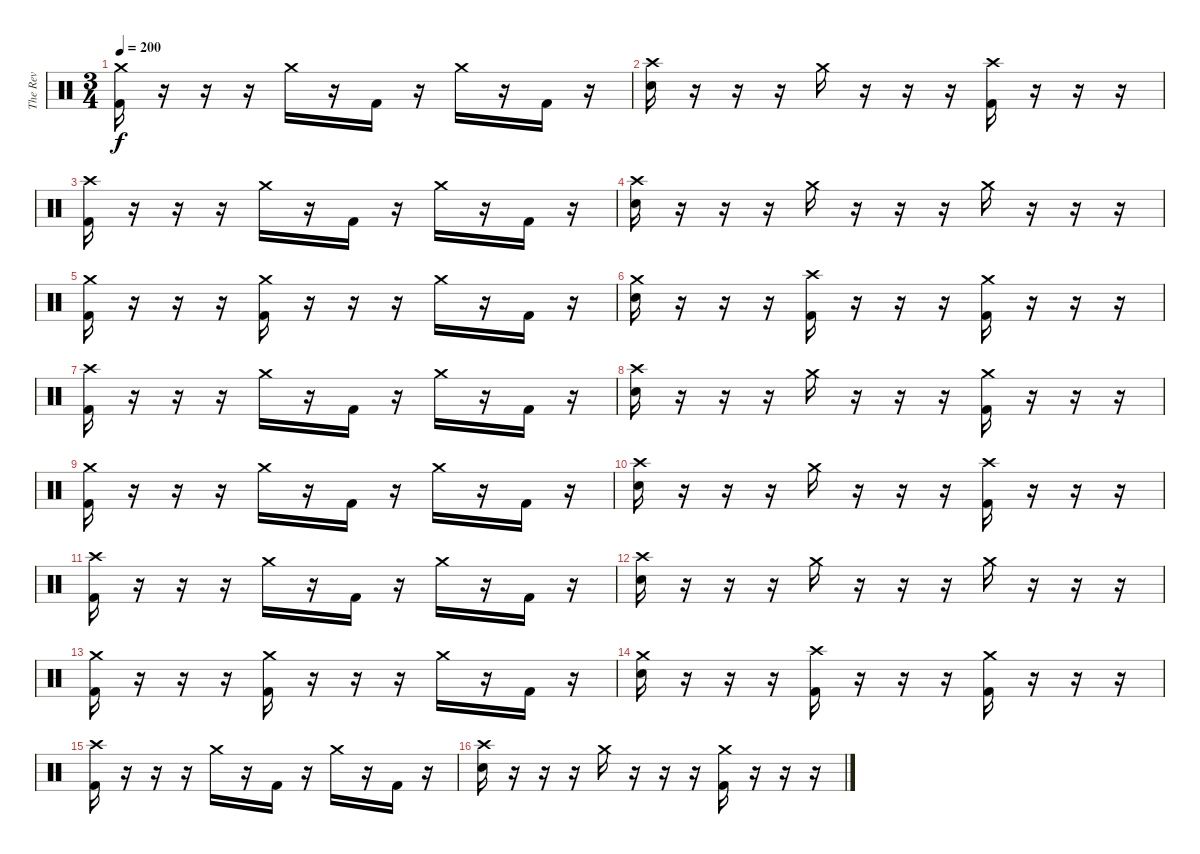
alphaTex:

\track ("The Rev" "The Rev") {instrument percussion}
\staff {score}
\articulation defaults
\ts (3 4)
\tempo 200
\clef neutral
\ks c
("Crash medium (hit)" "Kick (hit) 2").16{dy f} r.16 r.16 r.16 "Crash medium (hit)".16 r.16 "Kick (hit) 2".16 r.16 "Crash medium (hit)".16 r.16 "Kick (hit) 2".16 r.16 |
("Crash high (hit)" "Electric Snare (hit)").16 r.16 r.16 r.16 "Crash medium (hit)".16 r.16 r.16 r.16 ("Crash high (hit)" "Kick (hit) 2").16 r.16 r.16 r.16 |
("Crash high (hit)" "Kick (hit) 2").16 r.16 r.16 r.16 "Crash medium (hit)".16 r.16 "Kick (hit) 2".16 r.16 "Crash medium (hit)".16 r.16 "Kick (hit) 2".16 r.16 |
("Crash high (hit)" "Electric Snare (hit)").16 r.16 r.16 r.16 "Crash medium (hit)".16 r.16 r.16 r.16 "Crash medium (hit)".16 r.16 r.16 r.16 |
("Crash medium (hit)" "Kick (hit) 2").16 r.16 r.16 r.16 ("Crash medium (hit)" "Kick (hit) 2").16 r.16 r.16 r.16 "Crash medium (hit)".16 r.16 "Kick (hit) 2".16 r.16 |
("Crash medium (hit)" "Electric Snare (hit)").16 r.16 r.16 r.16 ("Crash high (hit)" "Kick (hit) 2").16 r.16 r.16 r.16 ("Crash medium (hit)" "Kick (hit) 2").16 r.16 r.16 r.16 |
("Crash high (hit)" "Kick (hit) 2").16 r.16 r.16 r.16 "Crash medium (hit)".16 r.16 "Kick (hit) 2".16 r.16 "Crash medium (hit)".16 r.16 "Kick (hit) 2".16 r.16 |
("Crash high (hit)" "Electric Snare (hit)").16 r.16 r.16 r.16 "Crash medium (hit)".16 r.16 r.16 r.16 ("Crash medium (hit)" "Kick (hit) 2").16 r.16 r.16 r.16 |
("Crash medium (hit)" "Kick (hit) 2").16 r.16 r.16 r.16 "Crash medium (hit)".16 r.16 "Kick (hit) 2".16 r.16 "Crash medium (hit)".16 r.16 "Kick (hit) 2".16 r.16 |
("Crash high (hit)" "Electric Snare (hit)").16 r.16 r.16 r.16 "Crash medium (hit)".16 r.16 r.16 r.16 ("Crash high (hit)" "Kick (hit) 2").16 r.16 r.16 r.16 |
("Crash high (hit)" "Kick (hit) 2").16 r.16 r.16 r.16 "Crash medium (hit)".16 r.16 "Kick (hit) 2".16 r.16 "Crash medium (hit)".16 r.16 "Kick (hit) 2".16 r.16 |
("Crash high (hit)" "Electric Snare (hit)").16 r.16 r.16 r.16 "Crash medium (hit)".16 r.16 r.16 r.16 "Crash medium (hit)".16 r.16 r.16 r.16 |
("Crash medium (hit)" "Kick (hit) 2").16 r.16 r.16 r.16 ("Crash medium (hit)" "Kick (hit) 2").16 r.16 r.16 r.16 "Crash medium (hit)".16 r.16 "Kick (hit) 2".16 r.16 |
("Crash medium (hit)" "Electric Snare (hit)").16 r.16 r.16 r.16 ("Crash high (hit)" "Kick (hit) 2").16 r.16 r.16 r.16 ("Crash medium (hit)" "Kick (hit) 2").16 r.16 r.16 r.16 |
("Crash high (hit)" "Kick (hit) 2").16 r.16 r.16 r.16 "Crash medium (hit)".16 r.16 "Kick (hit) 2".16 r.16 "Crash medium (hit)".16 r.16 "Kick (hit) 2".16 r.16 |
("Crash high (hit)" "Electric Snare (hit)").16 r.16 r.16 r.16 "Crash medium (hit)".16 r.16 r.16 r.16 ("Crash medium (hit)" "Kick (hit) 2").16 r.16 r.16 r.16
